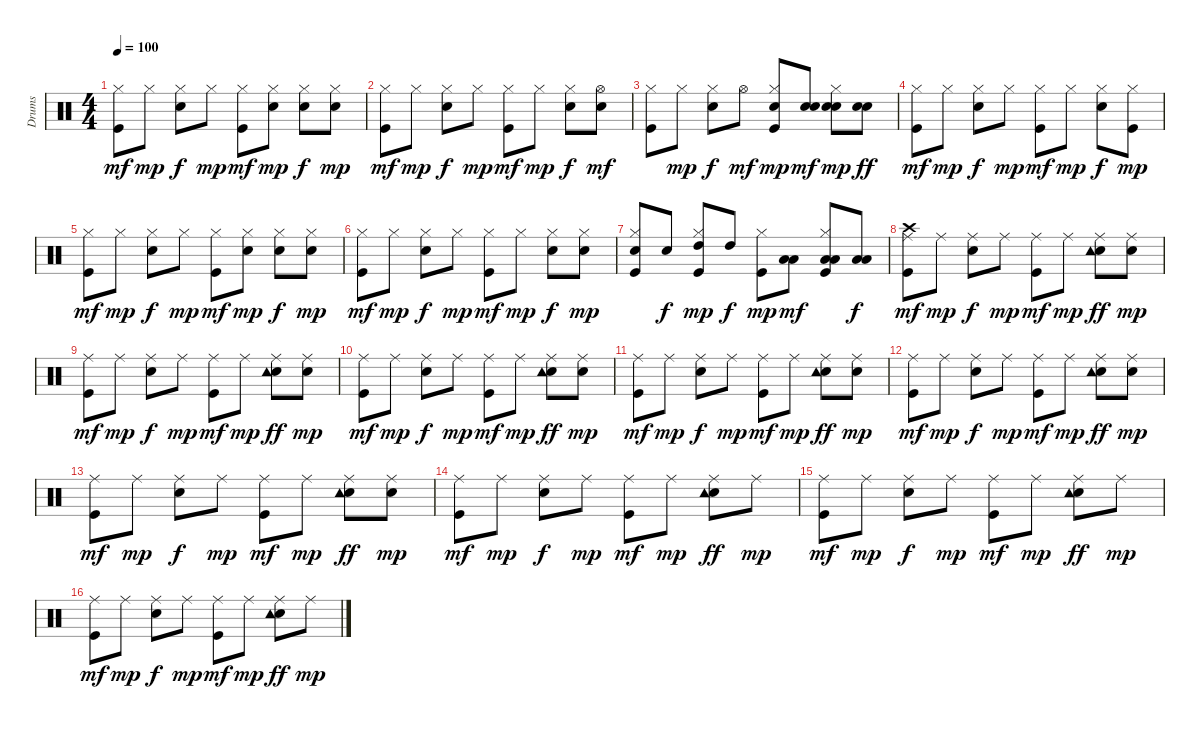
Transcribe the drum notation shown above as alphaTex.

\track ("Drums" "Drums") {instrument percussion}
\staff {score}
\articulation defaults
\ts (4 4)
\tempo 100
\clef neutral
\ks c
("Kick (hit)" "Hi-Hat (closed)").8{dy mf} "Hi-Hat (closed)".8{dy mp} ("Snare (hit) 2" "Hi-Hat (closed)").8{dy f} "Hi-Hat (closed)".8{dy mp} ("Kick (hit)" "Hi-Hat (closed)").8{dy mf} ("Snare (hit) 2" "Hi-Hat (closed)").8{dy mp} ("Snare (hit) 2" "Hi-Hat (closed)").8{dy f} ("Snare (hit) 2" "Hi-Hat (closed)").8{dy mp} |
("Kick (hit)" "Hi-Hat (closed)").8{dy mf} "Hi-Hat (closed)".8{dy mp} ("Snare (hit) 2" "Hi-Hat (closed)").8{dy f} "Hi-Hat (closed)".8{dy mp} ("Kick (hit)" "Hi-Hat (closed)").8{dy mf} "Hi-Hat (closed)".8{dy mp} ("Snare (hit) 2" "Hi-Hat (closed)").8{dy f} ("Snare (hit) 2" "Hi-Hat (open)").8{dy mf} |
("Kick (hit)" "Hi-Hat (closed)").8 "Hi-Hat (closed)".8{dy mp} ("Snare (hit) 2" "Hi-Hat (closed)").8{dy f} "Hi-Hat (open)".8{dy mf} ("Kick (hit)" "Snare (hit) 2" "Hi-Hat (closed)").8{dy mp} ("Snare (hit) 2" "Snare (hit) 2").8{dy mf} ("Snare (hit) 2" "Hi-Hat (closed)" "Snare (hit) 2").8{dy mp} ("Snare (hit) 2" "Snare (hit) 2").8{dy ff} |
("Kick (hit)" "Hi-Hat (closed)").8{dy mf} "Hi-Hat (closed)".8{dy mp} ("Snare (hit) 2" "Hi-Hat (closed)").8{dy f} "Hi-Hat (closed)".8{dy mp} ("Kick (hit)" "Hi-Hat (closed)").8{dy mf} "Hi-Hat (closed)".8{dy mp} ("Snare (hit) 2" "Hi-Hat (closed)").8{dy f} ("Kick (hit)" "Hi-Hat (closed)").8{dy mp} |
("Kick (hit)" "Hi-Hat (closed)").8{dy mf} "Hi-Hat (closed)".8{dy mp} ("Snare (hit) 2" "Hi-Hat (closed)").8{dy f} "Hi-Hat (closed)".8{dy mp} ("Kick (hit)" "Hi-Hat (closed)").8{dy mf} ("Snare (hit) 2" "Hi-Hat (closed)").8{dy mp} ("Snare (hit) 2" "Hi-Hat (closed)").8{dy f} ("Snare (hit) 2" "Hi-Hat (closed)").8{dy mp} |
("Kick (hit)" "Hi-Hat (closed)").8{dy mf} "Hi-Hat (closed)".8{dy mp} ("Snare (hit) 2" "Hi-Hat (closed)").8{dy f} "Hi-Hat (closed)".8{dy mp} ("Kick (hit)" "Hi-Hat (closed)").8{dy mf} "Hi-Hat (closed)".8{dy mp} ("Snare (hit) 2" "Hi-Hat (closed)").8{dy f} ("Snare (hit) 2" "Hi-Hat (closed)").8{dy mp} |
("Kick (hit)" "Hi-Hat (closed)" "Snare (hit) 2").8 "Snare (hit) 2".8{dy f} ("Kick (hit)" "Hi-Hat (closed)" "High Tom (hit)").8{dy mp} "High Tom (hit)".8{dy f} ("Kick (hit)" "Hi-Hat (closed)").8{dy mp} ("Low Tom (hit)" "Low Tom (hit)").8{dy mf} ("Kick (hit)" "Hi-Hat (closed)" "Low Floor Tom (hit)" "Low Floor Tom (hit)").8 ("Low Floor Tom (hit)" "Low Floor Tom (hit)").8{dy f} |
("Kick (hit)" "Ride (middle)" "Crash high (hit)").8{dy mf} "Ride (middle)".8{dy mp} ("Snare (hit) 2" "Ride (middle)").8{dy f} "Ride (middle)".8{dy mp} ("Kick (hit)" "Ride (middle)").8{dy mf} "Ride (middle)".8{dy mp} ("Snare (hit) 2" "Ride (middle)" "Tambourine (hit)").8{dy ff} ("Snare (hit) 2" "Ride (middle)").8{dy mp} |
("Kick (hit)" "Ride (middle)").8{dy mf} "Ride (middle)".8{dy mp} ("Snare (hit) 2" "Ride (middle)").8{dy f} "Ride (middle)".8{dy mp} ("Kick (hit)" "Ride (middle)").8{dy mf} "Ride (middle)".8{dy mp} ("Snare (hit) 2" "Ride (middle)" "Tambourine (hit)").8{dy ff} ("Snare (hit) 2" "Ride (middle)").8{dy mp} |
("Kick (hit)" "Ride (middle)").8{dy mf} "Ride (middle)".8{dy mp} ("Snare (hit) 2" "Ride (middle)").8{dy f} "Ride (middle)".8{dy mp} ("Kick (hit)" "Ride (middle)").8{dy mf} "Ride (middle)".8{dy mp} ("Snare (hit) 2" "Ride (middle)" "Tambourine (hit)").8{dy ff} ("Snare (hit) 2" "Ride (middle)").8{dy mp} |
("Kick (hit)" "Ride (middle)").8{dy mf} "Ride (middle)".8{dy mp} ("Snare (hit) 2" "Ride (middle)").8{dy f} "Ride (middle)".8{dy mp} ("Kick (hit)" "Ride (middle)").8{dy mf} "Ride (middle)".8{dy mp} ("Snare (hit) 2" "Ride (middle)" "Tambourine (hit)").8{dy ff} ("Snare (hit) 2" "Ride (middle)").8{dy mp} |
("Kick (hit)" "Ride (middle)").8{dy mf} "Ride (middle)".8{dy mp} ("Snare (hit) 2" "Ride (middle)").8{dy f} "Ride (middle)".8{dy mp} ("Kick (hit)" "Ride (middle)").8{dy mf} "Ride (middle)".8{dy mp} ("Snare (hit) 2" "Ride (middle)" "Tambourine (hit)").8{dy ff} ("Snare (hit) 2" "Ride (middle)").8{dy mp} |
("Kick (hit)" "Ride (middle)").8{dy mf} "Ride (middle)".8{dy mp} ("Snare (hit) 2" "Ride (middle)").8{dy f} "Ride (middle)".8{dy mp} ("Kick (hit)" "Ride (middle)").8{dy mf} "Ride (middle)".8{dy mp} ("Snare (hit) 2" "Ride (middle)" "Tambourine (hit)").8{dy ff} ("Snare (hit) 2" "Ride (middle)").8{dy mp} |
("Kick (hit)" "Ride (middle)").8{dy mf} "Ride (middle)".8{dy mp} ("Snare (hit) 2" "Ride (middle)").8{dy f} "Ride (middle)".8{dy mp} ("Kick (hit)" "Ride (middle)").8{dy mf} "Ride (middle)".8{dy mp} ("Snare (hit) 2" "Ride (middle)" "Tambourine (hit)").8{dy ff} "Ride (middle)".8{dy mp} |
("Kick (hit)" "Ride (middle)").8{dy mf} "Ride (middle)".8{dy mp} ("Snare (hit) 2" "Ride (middle)").8{dy f} "Ride (middle)".8{dy mp} ("Kick (hit)" "Ride (middle)").8{dy mf} "Ride (middle)".8{dy mp} ("Snare (hit) 2" "Ride (middle)" "Tambourine (hit)").8{dy ff} "Ride (middle)".8{dy mp} |
("Kick (hit)" "Ride (middle)").8{dy mf} "Ride (middle)".8{dy mp} ("Snare (hit) 2" "Ride (middle)").8{dy f} "Ride (middle)".8{dy mp} ("Kick (hit)" "Ride (middle)").8{dy mf} "Ride (middle)".8{dy mp} ("Snare (hit) 2" "Ride (middle)" "Tambourine (hit)").8{dy ff} "Ride (middle)".8{dy mp}
